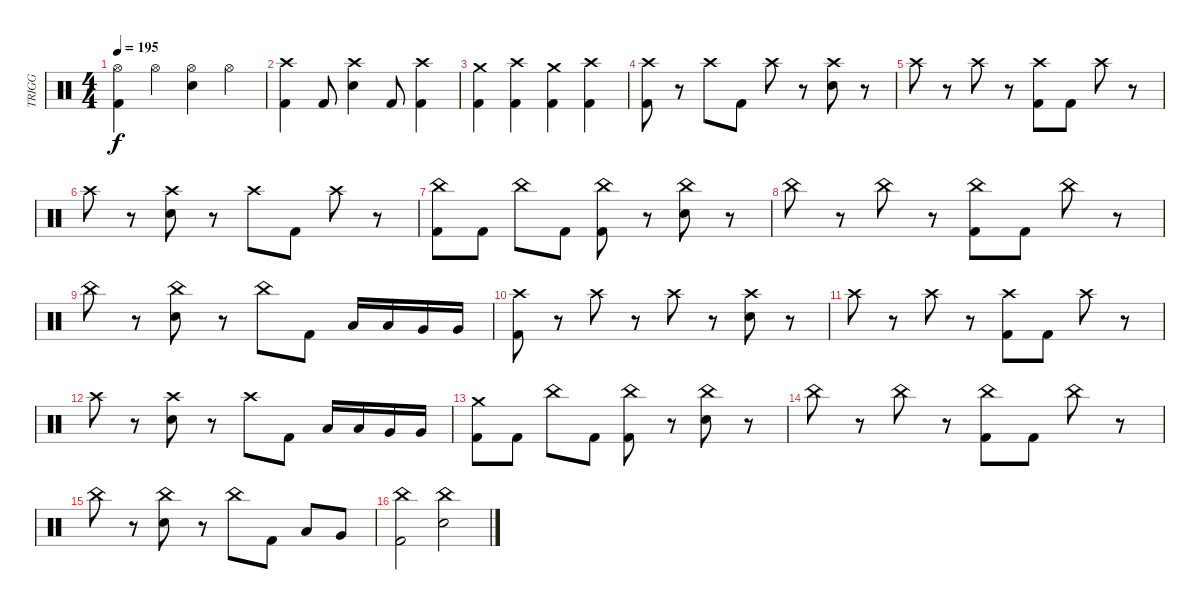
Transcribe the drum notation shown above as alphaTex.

\track ("TRIGG" "TRIGG") {instrument percussion}
\staff {score}
\articulation defaults
\ts (4 4)
\tempo 195
\clef neutral
\ks c
("Hi-Hat (open)" "Kick (hit) 2").4{dy f} "Hi-Hat (open)".4 ("Hi-Hat (open)" "Electric Snare (hit)").4 "Hi-Hat (open)".4 |
("Crash high (hit)" "Kick (hit) 2").4 "Kick (hit) 2".8 ("Crash high (hit)" "Electric Snare (hit)").4 "Kick (hit) 2".8 ("Crash high (hit)" "Kick (hit) 2").4 |
("Crash medium (hit)" "Kick (hit) 2").4 ("Crash high (hit)" "Kick (hit) 2").4 ("Crash medium (hit)" "Kick (hit) 2").4 ("Crash high (hit)" "Kick (hit) 2").4 |
("Crash high (hit)" "Kick (hit) 2").8 r.8 "Crash high (hit)".8 "Kick (hit) 2".8 "Crash high (hit)".8 r.8 ("Crash high (hit)" "Electric Snare (hit)").8 r.8 |
"Crash high (hit)".8 r.8 "Crash high (hit)".8 r.8 ("Crash high (hit)" "Kick (hit) 2").8 "Kick (hit) 2".8 "Crash high (hit)".8 r.8 |
"Crash high (hit)".8 r.8 ("Crash high (hit)" "Electric Snare (hit)").8 r.8 "Crash high (hit)".8 "Kick (hit) 2".8 "Crash high (hit)".8 r.8 |
("China (hit)" "Kick (hit) 2").8 "Kick (hit) 2".8 "China (hit)".8 "Kick (hit) 2".8 ("China (hit)" "Kick (hit) 2").8 r.8 ("China (hit)" "Electric Snare (hit)").8 r.8 |
"China (hit)".8 r.8 "China (hit)".8 r.8 ("China (hit)" "Kick (hit) 2").8 "Kick (hit) 2".8 "China (hit)".8 r.8 |
"China (hit)".8 r.8 ("China (hit)" "Electric Snare (hit)").8 r.8 "China (hit)".8 "Kick (hit) 2".8 "Low Tom (hit)".16 "Low Tom (hit)".16 "Very Low Tom (hit)".16 "Very Low Tom (hit)".16 |
("Crash high (hit)" "Kick (hit) 2").8 r.8 "Crash high (hit)".8 r.8 "Crash high (hit)".8 r.8 ("Crash high (hit)" "Electric Snare (hit)").8 r.8 |
"Crash high (hit)".8 r.8 "Crash high (hit)".8 r.8 ("Crash high (hit)" "Kick (hit) 2").8 "Kick (hit) 2".8 "Crash high (hit)".8 r.8 |
"Crash high (hit)".8 r.8 ("Crash high (hit)" "Electric Snare (hit)").8 r.8 "Crash high (hit)".8 "Kick (hit) 2".8 "Low Tom (hit)".16 "Low Tom (hit)".16 "Very Low Tom (hit)".16 "Very Low Tom (hit)".16 |
("Crash medium (hit)" "Kick (hit) 2").8 "Kick (hit) 2".8 "China (hit)".8 "Kick (hit) 2".8 ("China (hit)" "Kick (hit) 2").8 r.8 ("China (hit)" "Electric Snare (hit)").8 r.8 |
"China (hit)".8 r.8 "China (hit)".8 r.8 ("China (hit)" "Kick (hit) 2").8 "Kick (hit) 2".8 "China (hit)".8 r.8 |
"China (hit)".8 r.8 ("China (hit)" "Electric Snare (hit)").8 r.8 "China (hit)".8 "Kick (hit) 2".8 "Low Tom (hit)".8 "Very Low Tom (hit)".8 |
("China (hit)" "Kick (hit) 2").2 ("China (hit)" "Electric Snare (hit)").2
